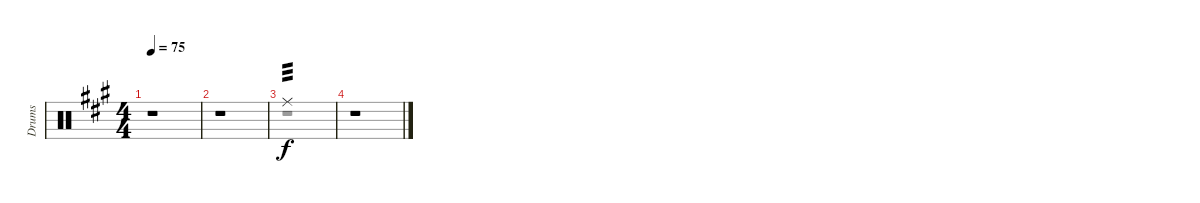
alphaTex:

\track ("Drums" "Drums") {instrument percussion}
\staff {score}
\articulation defaults
\voice
\ts (4 4)
\tempo 75
\clef neutral
\ks a
r.1{dy f} |
r.1 |
"Ride (middle)".1{tp 3} |
r.1
\voice
\clef neutral
\ottava regular
\simile none
\ks a
r.1{dy fff} |
r.1 |
r.1 |
r.1
